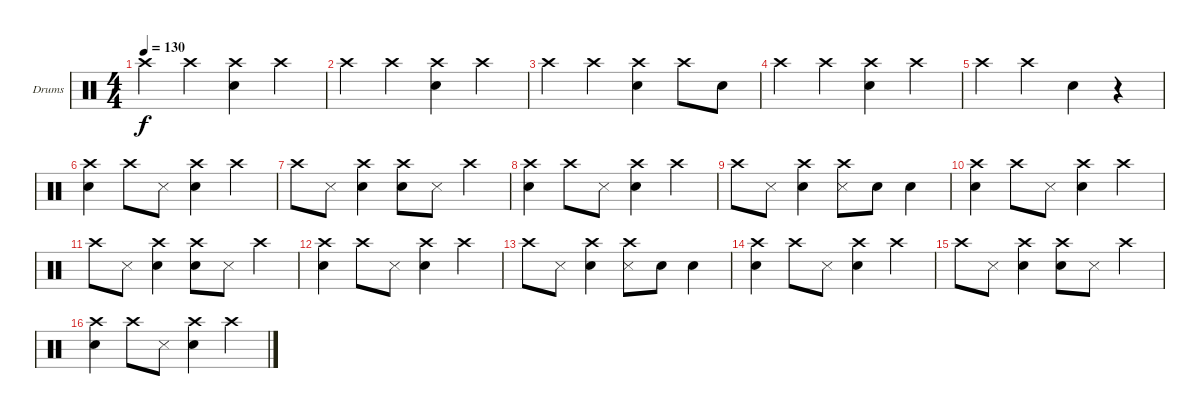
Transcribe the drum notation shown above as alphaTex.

\defaultSystemsLayout 4
\bracketExtendMode groupsimilarinstruments
\firstSystemTrackNameOrientation horizontal
\otherSystemsTrackNameOrientation horizontal
\track ("Drumkit" "Drums") {instrument percussion}
\staff {score}
\articulation defaults
\ts (4 4)
\tempo 130
\clef neutral
\ks c "Crash high (hit)".4{dy f} "Crash high (hit)".4
("Snare (hit) 2" "Crash high (hit)").4 "Crash high (hit)".4 |
"Crash high (hit)".4 "Crash high (hit)".4 ("Snare (hit) 2" "Crash high (hit)").4 "Crash high (hit)".4 |
"Crash high (hit)".4 "Crash high (hit)".4 ("Snare (hit) 2" "Crash high (hit)").4 "Crash high (hit)".8 "Snare (hit) 2".8 |
"Crash high (hit)".4 "Crash high (hit)".4 ("Snare (hit) 2" "Crash high (hit)").4 "Crash high (hit)".4 |
"Crash high (hit)".4 "Crash high (hit)".4 "Snare (hit) 2".4 r.4 |
("Snare (hit) 2" "Crash high (hit)").4 "Crash high (hit)".8 "Snare (side stick) 3".8 ("Snare (hit) 2" "Crash high (hit)").4 "Crash high (hit)".4 |
"Crash high (hit)".8 "Snare (side stick) 3".8 ("Snare (hit) 2" "Crash high (hit)").4 ("Snare (hit) 2" "Crash high (hit)").8 "Snare (side stick) 3".8 "Crash high (hit)".4 |
("Snare (hit) 2" "Crash high (hit)").4 "Crash high (hit)".8 "Snare (side stick) 3".8 ("Snare (hit) 2" "Crash high (hit)").4 "Crash high (hit)".4 |
"Crash high (hit)".8 "Snare (side stick) 3".8 ("Snare (hit) 2" "Crash high (hit)").4 ("Snare (side stick) 3" "Crash high (hit)").8 "Snare (hit) 2".8 "Snare (hit) 2".4 |
("Snare (hit) 2" "Crash high (hit)").4 "Crash high (hit)".8 "Snare (side stick) 3".8 ("Snare (hit) 2" "Crash high (hit)").4 "Crash high (hit)".4 |
"Crash high (hit)".8 "Snare (side stick) 3".8 ("Snare (hit) 2" "Crash high (hit)").4 ("Snare (hit) 2" "Crash high (hit)").8 "Snare (side stick) 3".8 "Crash high (hit)".4 |
("Snare (hit) 2" "Crash high (hit)").4 "Crash high (hit)".8 "Snare (side stick) 3".8 ("Snare (hit) 2" "Crash high (hit)").4 "Crash high (hit)".4 |
"Crash high (hit)".8 "Snare (side stick) 3".8 ("Snare (hit) 2" "Crash high (hit)").4 ("Snare (side stick) 3" "Crash high (hit)").8 "Snare (hit) 2".8 "Snare (hit) 2".4 |
("Snare (hit) 2" "Crash high (hit)").4 "Crash high (hit)".8 "Snare (side stick) 3".8 ("Snare (hit) 2" "Crash high (hit)").4 "Crash high (hit)".4 |
"Crash high (hit)".8 "Snare (side stick) 3".8 ("Snare (hit) 2" "Crash high (hit)").4 ("Snare (hit) 2" "Crash high (hit)").8 "Snare (side stick) 3".8 "Crash high (hit)".4 |
("Snare (hit) 2" "Crash high (hit)").4 "Crash high (hit)".8 "Snare (side stick) 3".8 ("Snare (hit) 2" "Crash high (hit)").4 "Crash high (hit)".4
